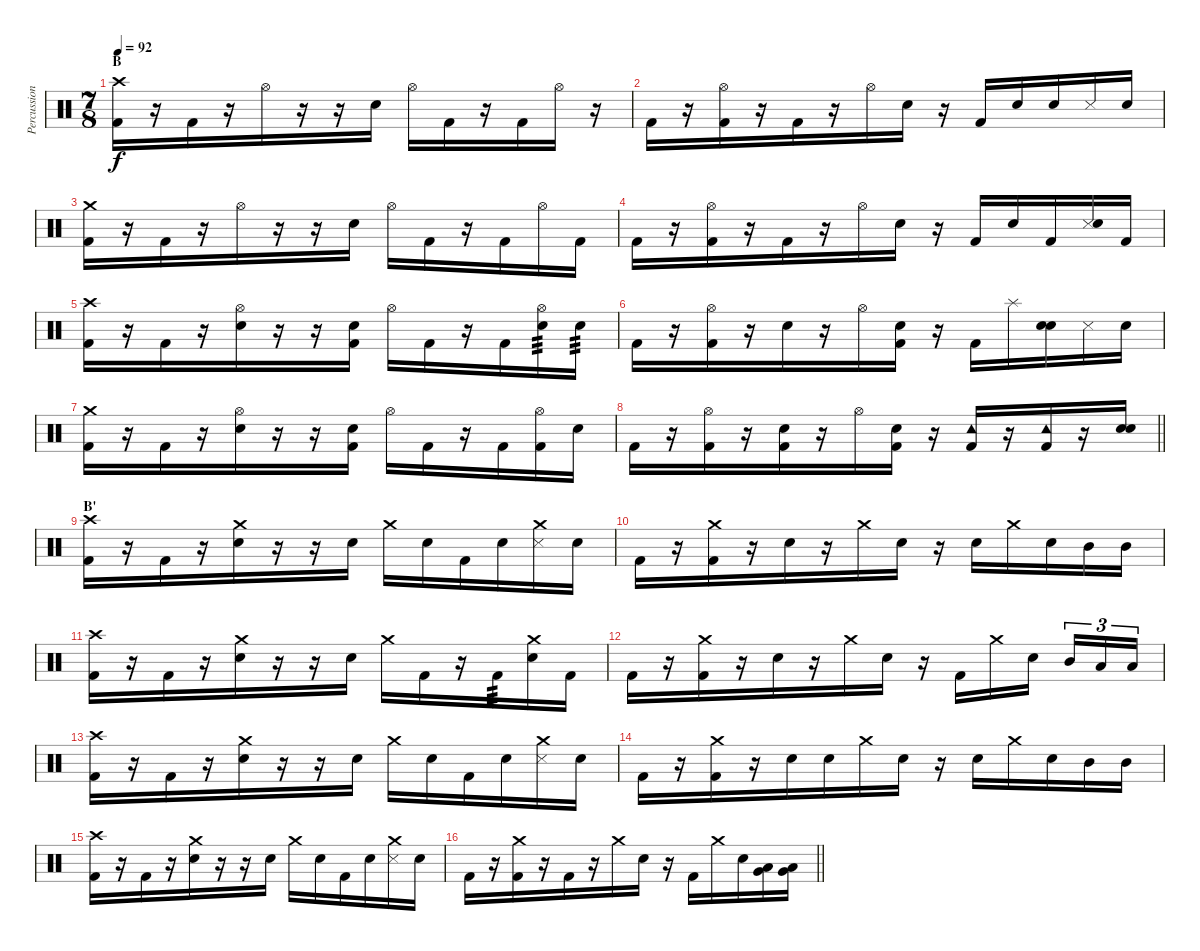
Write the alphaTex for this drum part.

\track ("Percussion" "Percussion") {instrument percussion}
\staff {score}
\articulation defaults
\ts (7 8)
\section ("" "B")
\tempo 92
\clef neutral
\ks c
("Crash high (hit)" "Kick (hit) 2").16{dy f} r.16 "Kick (hit) 2".16 r.16 "Hi-Hat (open)".16 r.16 r.16 "Snare (hit) 2".16 "Hi-Hat (open)".16 "Kick (hit) 2".16 r.16 "Kick (hit) 2".16 "Hi-Hat (open)".16 r.16 |
"Kick (hit) 2".16 r.16 ("Hi-Hat (open)" "Kick (hit) 2").16 r.16 "Kick (hit) 2".16 r.16 "Hi-Hat (open)".16 "Snare (hit) 2".16 r.16 "Kick (hit) 2".16 "Snare (hit)".16 "Snare (hit) 2".16 "Metronome (hit)".16 "Snare (hit) 2".16 |
("Crash medium (hit)" "Kick (hit) 2").16 r.16 "Kick (hit) 2".16 r.16 "Hi-Hat (open)".16 r.16 r.16 "Snare (hit) 2".16 "Hi-Hat (open)".16 "Kick (hit) 2".16 r.16 "Kick (hit) 2".16 "Hi-Hat (open)".16 "Kick (hit) 2".16 |
"Kick (hit) 2".16 r.16 ("Hi-Hat (open)" "Kick (hit) 2").16 r.16 "Kick (hit) 2".16 r.16 "Hi-Hat (open)".16 "Snare (hit) 2".16 r.16 "Kick (hit) 2".16 "Snare (hit)".16 "Kick (hit) 2".16 ("Metronome (hit)" "Snare (hit) 2").16{bu 120} "Kick (hit) 2".16 |
("Crash high (hit)" "Kick (hit) 2").16 r.16 "Kick (hit) 2".16 r.16 ("Hi-Hat (open)" "Snare (hit) 2").16 r.16 r.16 ("Snare (hit) 2" "Kick (hit) 2").16 "Hi-Hat (open)".16 "Kick (hit) 2".16 r.16 "Kick (hit) 2".16 ("Hi-Hat (open)" "Snare (hit) 2").16{tp 3} "Snare (hit) 2".16{tp 3} |
"Kick (hit) 2".16 r.16 ("Hi-Hat (open)" "Kick (hit) 2").16 r.16 "Snare (hit) 2".16 r.16 "Hi-Hat (open)".16 ("Snare (hit) 2" "Kick (hit) 2").16 r.16 "Kick (hit) 2".16 "Splash (hit)".16 ("Snare (hit)" "Snare (hit) 2").16 "Metronome (hit)".16 "Snare (hit) 2".16 |
("Crash medium (hit)" "Kick (hit) 2").16 r.16 "Kick (hit) 2".16 r.16 ("Hi-Hat (open)" "Snare (hit) 2").16 r.16 r.16 ("Snare (hit) 2" "Kick (hit) 2").16 "Hi-Hat (open)".16 "Kick (hit) 2".16 r.16 "Kick (hit) 2".16 ("Hi-Hat (open)" "Kick (hit) 2").16 "Snare (hit) 2".16 |
\barLineRight lightlight "Kick (hit) 2".16
r.16 ("Hi-Hat (open)" "Kick (hit) 2").16 r.16 ("Snare (hit) 2" "Kick (hit) 2").16 r.16 "Hi-Hat (open)".16 ("Snare (hit) 2" "Kick (hit) 2").16 r.16 ("Tambourine (hit)" "Kick (hit) 2").16 r.16 ("Tambourine (hit)" "Kick (hit) 2").16 r.16 ("Snare (hit)" "Snare (hit) 2").16 |
\section ("" "B'")
("Crash high (hit)" "Kick (hit) 2").16 r.16 "Kick (hit) 2".16 r.16 ("Crash medium (hit)" "Snare (hit) 2").16 r.16 r.16 "Snare (hit) 2".16 "Crash medium (hit)".16 "Snare (hit) 2".16 "Kick (hit) 2".16 "Snare (hit) 2".16 ("Crash medium (hit)" "Metronome (hit)").16 "Snare (hit) 2".16 |
"Kick (hit) 2".16 r.16 ("Crash medium (hit)" "Kick (hit) 2").16 r.16 "Snare (hit) 2".16 r.16 "Crash medium (hit)".16 "Snare (hit) 2".16 r.16 "Snare (hit) 2".16 "Crash medium (hit)".16 "Snare (hit) 2".16 "Mid Tom (hit)".16 "Mid Tom (hit)".16 |
("Crash high (hit)" "Kick (hit) 2").16 r.16 "Kick (hit) 2".16 r.16 ("Crash medium (hit)" "Snare (hit) 2").16 r.16 r.16 "Snare (hit) 2".16 "Crash medium (hit)".16 "Kick (hit) 2".16 r.16 "Kick (hit) 2".16{tp 3} ("Crash medium (hit)" "Snare (hit) 2").16 "Kick (hit) 2".16 |
"Kick (hit) 2".16 r.16 ("Crash medium (hit)" "Kick (hit) 2").16 r.16 "Snare (hit) 2".16 r.16 "Crash medium (hit)".16 "Snare (hit) 2".16 r.16 "Kick (hit) 2".16 "Crash medium (hit)".16 "Snare (hit) 2".16 "Mid Tom (hit)".16{tu (3 2)} "Low Tom (hit)".16{tu (3 2)} "Low Tom (hit)".16{tu (3 2)} |
("Crash high (hit)" "Kick (hit) 2").16 r.16 "Kick (hit) 2".16 r.16 ("Crash medium (hit)" "Snare (hit) 2").16 r.16 r.16 "Snare (hit) 2".16 "Crash medium (hit)".16 "Snare (hit) 2".16 "Kick (hit) 2".16 "Snare (hit) 2".16 ("Crash medium (hit)" "Metronome (hit)").16 "Snare (hit) 2".16 |
"Kick (hit) 2".16 r.16 ("Crash medium (hit)" "Kick (hit) 2").16 r.16 "Snare (hit) 2".16 "Snare (hit) 2".16 "Crash medium (hit)".16 "Snare (hit) 2".16 r.16 "Snare (hit) 2".16 "Crash medium (hit)".16 "Snare (hit) 2".16 "Mid Tom (hit)".16 "Mid Tom (hit)".16 |
("Crash high (hit)" "Kick (hit) 2").16 r.16 "Kick (hit) 2".16 r.16 ("Crash medium (hit)" "Snare (hit) 2").16 r.16 r.16 "Snare (hit) 2".16 "Crash medium (hit)".16 "Snare (hit) 2".16 "Kick (hit) 2".16 "Snare (hit) 2".16 ("Crash medium (hit)" "Metronome (hit)").16 "Snare (hit) 2".16 |
\barLineRight lightlight "Kick (hit) 2".16
r.16 ("Crash medium (hit)" "Kick (hit) 2").16 r.16 "Kick (hit) 2".16 r.16 "Crash medium (hit)".16 "Snare (hit) 2".16 r.16 "Kick (hit) 2".16 "Crash medium (hit)".16 "Snare (hit) 2".16 ("Low Tom (hit)" "Very Low Tom (hit)").16{bu 60} ("Low Tom (hit)" "Very Low Tom (hit)").16{bu 60}
